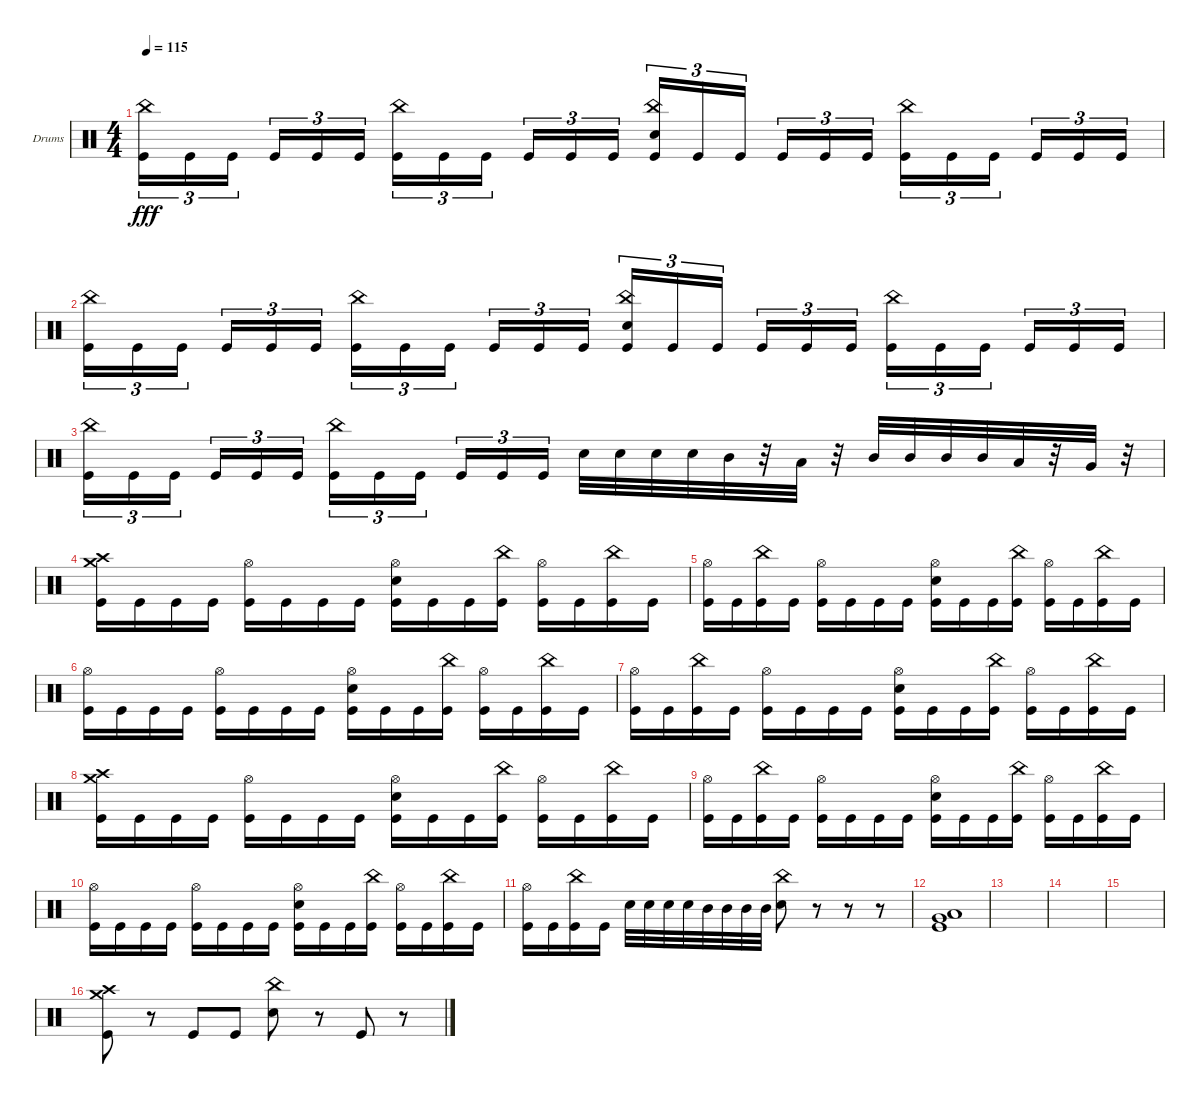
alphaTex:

\bracketExtendMode groupsimilarinstruments
\firstSystemTrackNameOrientation horizontal
\otherSystemsTrackNameOrientation horizontal
\track ("Drumkit" "Drums") {instrument percussion}
\staff {score}
\articulation defaults
\ts (4 4)
\tempo 115
\clef neutral
\ks c
("Kick (hit)" "China (hit)").16{tu (3 2) dy fff} "Kick (hit)".16{tu (3 2)} "Kick (hit)".16{tu (3 2)} "Kick (hit)".16{tu (3 2)} "Kick (hit)".16{tu (3 2)} "Kick (hit)".16{tu (3 2)} ("Kick (hit)" "China (hit)").16{tu (3 2)} "Kick (hit)".16{tu (3 2)} "Kick (hit)".16{tu (3 2)} "Kick (hit)".16{tu (3 2)} "Kick (hit)".16{tu (3 2)} "Kick (hit)".16{tu (3 2)} ("Kick (hit)" "China (hit)" "Snare (hit) 2").16{tu (3 2)} "Kick (hit)".16{tu (3 2)} "Kick (hit)".16{tu (3 2)} "Kick (hit)".16{tu (3 2)} "Kick (hit)".16{tu (3 2)} "Kick (hit)".16{tu (3 2)} ("Kick (hit)" "China (hit)").16{tu (3 2)} "Kick (hit)".16{tu (3 2)} "Kick (hit)".16{tu (3 2)} "Kick (hit)".16{tu (3 2)} "Kick (hit)".16{tu (3 2)} "Kick (hit)".16{tu (3 2)} |
("Kick (hit)" "China (hit)").16{tu (3 2)} "Kick (hit)".16{tu (3 2)} "Kick (hit)".16{tu (3 2)} "Kick (hit)".16{tu (3 2)} "Kick (hit)".16{tu (3 2)} "Kick (hit)".16{tu (3 2)} ("Kick (hit)" "China (hit)").16{tu (3 2)} "Kick (hit)".16{tu (3 2)} "Kick (hit)".16{tu (3 2)} "Kick (hit)".16{tu (3 2)} "Kick (hit)".16{tu (3 2)} "Kick (hit)".16{tu (3 2)} ("Kick (hit)" "China (hit)" "Snare (hit) 2").16{tu (3 2)} "Kick (hit)".16{tu (3 2)} "Kick (hit)".16{tu (3 2)} "Kick (hit)".16{tu (3 2)} "Kick (hit)".16{tu (3 2)} "Kick (hit)".16{tu (3 2)} ("Kick (hit)" "China (hit)").16{tu (3 2)} "Kick (hit)".16{tu (3 2)} "Kick (hit)".16{tu (3 2)} "Kick (hit)".16{tu (3 2)} "Kick (hit)".16{tu (3 2)} "Kick (hit)".16{tu (3 2)} |
("Kick (hit)" "China (hit)").16{tu (3 2)} "Kick (hit)".16{tu (3 2)} "Kick (hit)".16{tu (3 2)} "Kick (hit)".16{tu (3 2)} "Kick (hit)".16{tu (3 2)} "Kick (hit)".16{tu (3 2)} ("Kick (hit)" "China (hit)").16{tu (3 2)} "Kick (hit)".16{tu (3 2)} "Kick (hit)".16{tu (3 2)} "Kick (hit)".16{tu (3 2)} "Kick (hit)".16{tu (3 2)} "Kick (hit)".16{tu (3 2)} "Snare (hit) 2".32 "Snare (hit) 2".32 "Snare (hit) 2".32 "Snare (hit) 2".32 "Mid Tom (hit)".32 r.32 "Low Tom (hit)".32 r.32 "Mid Tom (hit)".32 "Mid Tom (hit)".32 "Mid Tom (hit)".32 "Mid Tom (hit)".32 "Low Tom (hit)".32 r.32 "Very Low Tom (hit)".32 r.32 |
("Kick (hit)" "Crash high (hit)" "Crash medium (hit)").16 "Kick (hit)".16 "Kick (hit)".16 "Kick (hit)".16 ("Kick (hit)" "Hi-Hat (open)").16 "Kick (hit)".16 "Kick (hit)".16 "Kick (hit)".16 ("Kick (hit)" "Hi-Hat (open)" "Snare (hit) 2").16 "Kick (hit)".16 "Kick (hit)".16 ("Kick (hit)" "China (hit)").16 ("Kick (hit)" "Hi-Hat (open)").16 "Kick (hit)".16 ("Kick (hit)" "China (hit)").16 "Kick (hit)".16 |
("Kick (hit)" "Hi-Hat (open)").16 "Kick (hit)".16 ("Kick (hit)" "China (hit)").16 "Kick (hit)".16 ("Kick (hit)" "Hi-Hat (open)").16 "Kick (hit)".16 "Kick (hit)".16 "Kick (hit)".16 ("Kick (hit)" "Hi-Hat (open)" "Snare (hit) 2").16 "Kick (hit)".16 "Kick (hit)".16 ("Kick (hit)" "China (hit)").16 ("Kick (hit)" "Hi-Hat (open)").16 "Kick (hit)".16 ("Kick (hit)" "China (hit)").16 "Kick (hit)".16 |
("Kick (hit)" "Hi-Hat (open)").16 "Kick (hit)".16 "Kick (hit)".16 "Kick (hit)".16 ("Kick (hit)" "Hi-Hat (open)").16 "Kick (hit)".16 "Kick (hit)".16 "Kick (hit)".16 ("Kick (hit)" "Hi-Hat (open)" "Snare (hit) 2").16 "Kick (hit)".16 "Kick (hit)".16 ("Kick (hit)" "China (hit)").16 ("Kick (hit)" "Hi-Hat (open)").16 "Kick (hit)".16 ("Kick (hit)" "China (hit)").16 "Kick (hit)".16 |
("Kick (hit)" "Hi-Hat (open)").16 "Kick (hit)".16 ("Kick (hit)" "China (hit)").16 "Kick (hit)".16 ("Kick (hit)" "Hi-Hat (open)").16 "Kick (hit)".16 "Kick (hit)".16 "Kick (hit)".16 ("Kick (hit)" "Hi-Hat (open)" "Snare (hit) 2").16 "Kick (hit)".16 "Kick (hit)".16 ("Kick (hit)" "China (hit)").16 ("Kick (hit)" "Hi-Hat (open)").16 "Kick (hit)".16 ("Kick (hit)" "China (hit)").16 "Kick (hit)".16 |
("Kick (hit)" "Crash high (hit)" "Crash medium (hit)").16 "Kick (hit)".16 "Kick (hit)".16 "Kick (hit)".16 ("Kick (hit)" "Hi-Hat (open)").16 "Kick (hit)".16 "Kick (hit)".16 "Kick (hit)".16 ("Kick (hit)" "Hi-Hat (open)" "Snare (hit) 2").16 "Kick (hit)".16 "Kick (hit)".16 ("Kick (hit)" "China (hit)").16 ("Kick (hit)" "Hi-Hat (open)").16 "Kick (hit)".16 ("Kick (hit)" "China (hit)").16 "Kick (hit)".16 |
("Kick (hit)" "Hi-Hat (open)").16 "Kick (hit)".16 ("Kick (hit)" "China (hit)").16 "Kick (hit)".16 ("Kick (hit)" "Hi-Hat (open)").16 "Kick (hit)".16 "Kick (hit)".16 "Kick (hit)".16 ("Kick (hit)" "Hi-Hat (open)" "Snare (hit) 2").16 "Kick (hit)".16 "Kick (hit)".16 ("Kick (hit)" "China (hit)").16 ("Kick (hit)" "Hi-Hat (open)").16 "Kick (hit)".16 ("Kick (hit)" "China (hit)").16 "Kick (hit)".16 |
("Kick (hit)" "Hi-Hat (open)").16 "Kick (hit)".16 "Kick (hit)".16 "Kick (hit)".16 ("Kick (hit)" "Hi-Hat (open)").16 "Kick (hit)".16 "Kick (hit)".16 "Kick (hit)".16 ("Kick (hit)" "Hi-Hat (open)" "Snare (hit) 2").16 "Kick (hit)".16 "Kick (hit)".16 ("Kick (hit)" "China (hit)").16 ("Kick (hit)" "Hi-Hat (open)").16 "Kick (hit)".16 ("Kick (hit)" "China (hit)").16 "Kick (hit)".16 |
("Kick (hit)" "Hi-Hat (open)").16 "Kick (hit)".16 ("Kick (hit)" "China (hit)").16 "Kick (hit)".16 "Snare (hit) 2".32 "Snare (hit) 2".32 "Snare (hit) 2".32 "Snare (hit) 2".32 "Mid Tom (hit)".32 "Mid Tom (hit)".32 "Mid Tom (hit)".32 "Mid Tom (hit)".32 ("Snare (hit) 2" "China (hit)").8 r.8 r.8 r.8 |
("Kick (hit)" "Very Low Tom (hit)" "Low Tom (hit)").1 |
|
|
|
("Kick (hit)" "Crash medium (hit)" "Crash high (hit)").8 r.8 "Kick (hit)".8 "Kick (hit)".8 ("China (hit)" "Snare (hit) 2").8 r.8 "Kick (hit)".8 r.8
